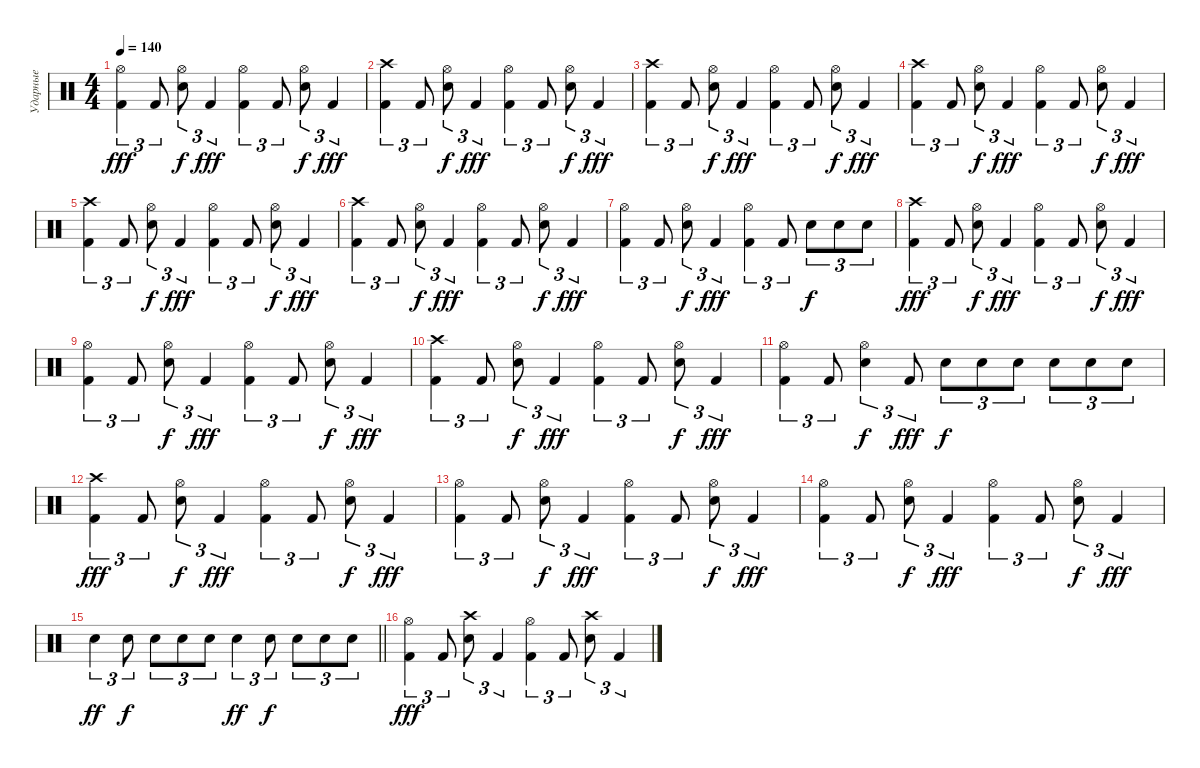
\track ("Ударные" "Ударные") {instrument percussion}
\staff {score}
\articulation defaults
\ts (4 4)
\tempo 140
\clef neutral
\ks c
("Kick (hit) 2" "Hi-Hat (open)").4{tu (3 2) dy fff} "Kick (hit) 2".8{tu (3 2)} ("Snare (hit) 2" "Hi-Hat (open)").8{tu (3 2) dy f} "Kick (hit) 2".4{tu (3 2) dy fff} ("Kick (hit) 2" "Hi-Hat (open)").4{tu (3 2)} "Kick (hit) 2".8{tu (3 2)} ("Snare (hit) 2" "Hi-Hat (open)").8{tu (3 2) dy f} "Kick (hit) 2".4{tu (3 2) dy fff} |
("Kick (hit) 2" "Crash high (hit)").4{tu (3 2)} "Kick (hit) 2".8{tu (3 2)} ("Snare (hit) 2" "Hi-Hat (open)").8{tu (3 2) dy f} "Kick (hit) 2".4{tu (3 2) dy fff} ("Kick (hit) 2" "Hi-Hat (open)").4{tu (3 2)} "Kick (hit) 2".8{tu (3 2)} ("Snare (hit) 2" "Hi-Hat (open)").8{tu (3 2) dy f} "Kick (hit) 2".4{tu (3 2) dy fff} |
("Kick (hit) 2" "Crash high (hit)").4{tu (3 2)} "Kick (hit) 2".8{tu (3 2)} ("Snare (hit) 2" "Hi-Hat (open)").8{tu (3 2) dy f} "Kick (hit) 2".4{tu (3 2) dy fff} ("Kick (hit) 2" "Hi-Hat (open)").4{tu (3 2)} "Kick (hit) 2".8{tu (3 2)} ("Snare (hit) 2" "Hi-Hat (open)").8{tu (3 2) dy f} "Kick (hit) 2".4{tu (3 2) dy fff} |
("Kick (hit) 2" "Crash high (hit)").4{tu (3 2)} "Kick (hit) 2".8{tu (3 2)} ("Snare (hit) 2" "Hi-Hat (open)").8{tu (3 2) dy f} "Kick (hit) 2".4{tu (3 2) dy fff} ("Kick (hit) 2" "Hi-Hat (open)").4{tu (3 2)} "Kick (hit) 2".8{tu (3 2)} ("Snare (hit) 2" "Hi-Hat (open)").8{tu (3 2) dy f} "Kick (hit) 2".4{tu (3 2) dy fff} |
("Kick (hit) 2" "Crash high (hit)").4{tu (3 2)} "Kick (hit) 2".8{tu (3 2)} ("Snare (hit) 2" "Hi-Hat (open)").8{tu (3 2) dy f} "Kick (hit) 2".4{tu (3 2) dy fff} ("Kick (hit) 2" "Hi-Hat (open)").4{tu (3 2)} "Kick (hit) 2".8{tu (3 2)} ("Snare (hit) 2" "Hi-Hat (open)").8{tu (3 2) dy f} "Kick (hit) 2".4{tu (3 2) dy fff} |
("Kick (hit) 2" "Crash high (hit)").4{tu (3 2)} "Kick (hit) 2".8{tu (3 2)} ("Snare (hit) 2" "Hi-Hat (open)").8{tu (3 2) dy f} "Kick (hit) 2".4{tu (3 2) dy fff} ("Kick (hit) 2" "Hi-Hat (open)").4{tu (3 2)} "Kick (hit) 2".8{tu (3 2)} ("Snare (hit) 2" "Hi-Hat (open)").8{tu (3 2) dy f} "Kick (hit) 2".4{tu (3 2) dy fff} |
("Kick (hit) 2" "Hi-Hat (open)").4{tu (3 2)} "Kick (hit) 2".8{tu (3 2)} ("Snare (hit) 2" "Hi-Hat (open)").8{tu (3 2) dy f} "Kick (hit) 2".4{tu (3 2) dy fff} ("Kick (hit) 2" "Hi-Hat (open)").4{tu (3 2)} "Kick (hit) 2".8{tu (3 2)} "Snare (hit) 2".8{tu (3 2) dy f} "Snare (hit) 2".8{tu (3 2)} "Snare (hit) 2".8{tu (3 2)} |
("Kick (hit) 2" "Crash high (hit)").4{tu (3 2) dy fff} "Kick (hit) 2".8{tu (3 2)} ("Snare (hit) 2" "Hi-Hat (open)").8{tu (3 2) dy f} "Kick (hit) 2".4{tu (3 2) dy fff} ("Kick (hit) 2" "Hi-Hat (open)").4{tu (3 2)} "Kick (hit) 2".8{tu (3 2)} ("Snare (hit) 2" "Hi-Hat (open)").8{tu (3 2) dy f} "Kick (hit) 2".4{tu (3 2) dy fff} |
("Kick (hit) 2" "Hi-Hat (open)").4{tu (3 2)} "Kick (hit) 2".8{tu (3 2)} ("Snare (hit) 2" "Hi-Hat (open)").8{tu (3 2) dy f} "Kick (hit) 2".4{tu (3 2) dy fff} ("Kick (hit) 2" "Hi-Hat (open)").4{tu (3 2)} "Kick (hit) 2".8{tu (3 2)} ("Snare (hit) 2" "Hi-Hat (open)").8{tu (3 2) dy f} "Kick (hit) 2".4{tu (3 2) dy fff} |
("Kick (hit) 2" "Crash high (hit)").4{tu (3 2)} "Kick (hit) 2".8{tu (3 2)} ("Snare (hit) 2" "Hi-Hat (open)").8{tu (3 2) dy f} "Kick (hit) 2".4{tu (3 2) dy fff} ("Kick (hit) 2" "Hi-Hat (open)").4{tu (3 2)} "Kick (hit) 2".8{tu (3 2)} ("Snare (hit) 2" "Hi-Hat (open)").8{tu (3 2) dy f} "Kick (hit) 2".4{tu (3 2) dy fff} |
("Kick (hit) 2" "Hi-Hat (open)").4{tu (3 2)} "Kick (hit) 2".8{tu (3 2)} ("Snare (hit) 2" "Hi-Hat (open)").4{tu (3 2) dy f} "Kick (hit) 2".8{tu (3 2) dy fff} "Snare (hit) 2".8{tu (3 2) dy f} "Snare (hit) 2".8{tu (3 2)} "Snare (hit) 2".8{tu (3 2)} "Snare (hit) 2".8{tu (3 2)} "Snare (hit) 2".8{tu (3 2)} "Snare (hit) 2".8{tu (3 2)} |
("Kick (hit) 2" "Crash high (hit)").4{tu (3 2) dy fff} "Kick (hit) 2".8{tu (3 2)} ("Snare (hit) 2" "Hi-Hat (open)").8{tu (3 2) dy f} "Kick (hit) 2".4{tu (3 2) dy fff} ("Kick (hit) 2" "Hi-Hat (open)").4{tu (3 2)} "Kick (hit) 2".8{tu (3 2)} ("Snare (hit) 2" "Hi-Hat (open)").8{tu (3 2) dy f} "Kick (hit) 2".4{tu (3 2) dy fff} |
("Kick (hit) 2" "Hi-Hat (open)").4{tu (3 2)} "Kick (hit) 2".8{tu (3 2)} ("Snare (hit) 2" "Hi-Hat (open)").8{tu (3 2) dy f} "Kick (hit) 2".4{tu (3 2) dy fff} ("Kick (hit) 2" "Hi-Hat (open)").4{tu (3 2)} "Kick (hit) 2".8{tu (3 2)} ("Snare (hit) 2" "Hi-Hat (open)").8{tu (3 2) dy f} "Kick (hit) 2".4{tu (3 2) dy fff} |
("Kick (hit) 2" "Hi-Hat (open)").4{tu (3 2)} "Kick (hit) 2".8{tu (3 2)} ("Snare (hit) 2" "Hi-Hat (open)").8{tu (3 2) dy f} "Kick (hit) 2".4{tu (3 2) dy fff} ("Kick (hit) 2" "Hi-Hat (open)").4{tu (3 2)} "Kick (hit) 2".8{tu (3 2)} ("Snare (hit) 2" "Hi-Hat (open)").8{tu (3 2) dy f} "Kick (hit) 2".4{tu (3 2) dy fff} |
\barLineRight lightlight "Snare (hit) 2".4{tu (3 2) dy ff} "Snare (hit) 2".8{tu (3 2) dy f} "Snare (hit) 2".8{tu (3 2)} "Snare (hit) 2".8{tu (3 2)} "Snare (hit) 2".8{tu (3 2)} "Snare (hit) 2".4{tu (3 2) dy ff} "Snare (hit) 2".8{tu (3 2) dy f} "Snare (hit) 2".8{tu (3 2)} "Snare (hit) 2".8{tu (3 2)} "Snare (hit) 2".8{tu (3 2)}
|
("Kick (hit) 2" "Hi-Hat (open)").4{tu (3 2) dy fff} "Kick (hit) 2".8{tu (3 2)} ("Snare (hit) 2" "Crash high (hit)").8{tu (3 2)} "Kick (hit) 2".4{tu (3 2)} ("Kick (hit) 2" "Hi-Hat (open)").4{tu (3 2)} "Kick (hit) 2".8{tu (3 2)} ("Snare (hit) 2" "Crash high (hit)").8{tu (3 2)} "Kick (hit) 2".4{tu (3 2)}
